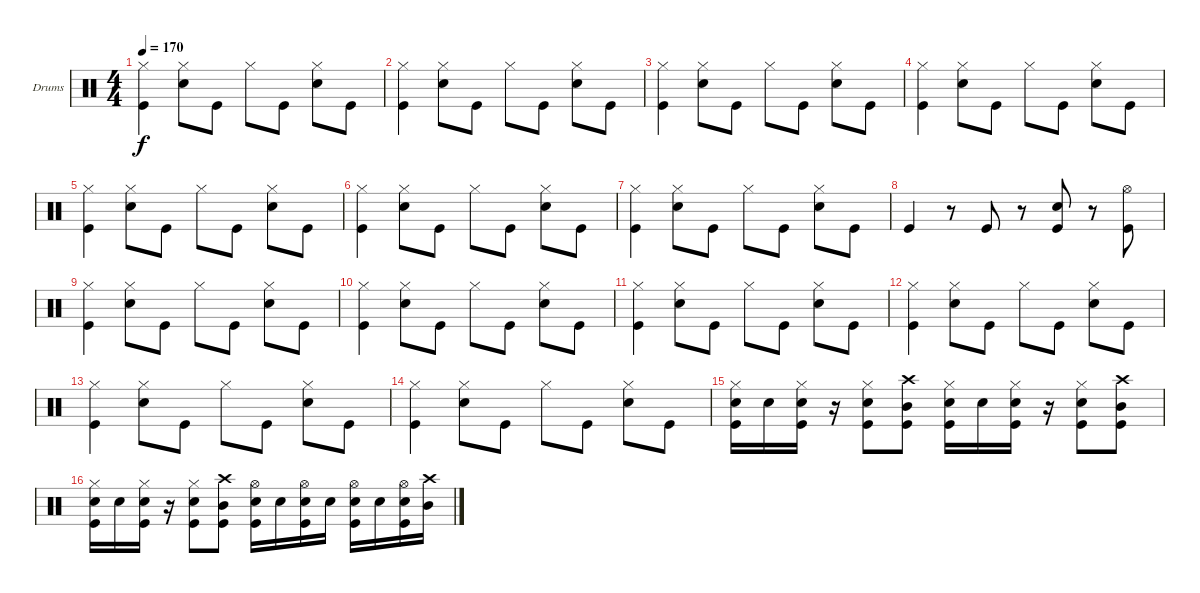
\bracketExtendMode groupsimilarinstruments
\firstSystemTrackNameOrientation horizontal
\otherSystemsTrackNameOrientation horizontal
\track ("Drumkit" "Drums") {instrument percussion}
\staff {score}
\articulation defaults
\ts (4 4)
\tempo 170
\clef neutral
\ks c
("Hi-Hat (closed)" "Kick (hit)").4{dy f} ("Hi-Hat (closed)" "Snare (hit) 2").8 "Kick (hit)".8 "Hi-Hat (closed)".8 "Kick (hit)".8 ("Hi-Hat (closed)" "Snare (hit) 2").8 "Kick (hit)".8 |
("Hi-Hat (closed)" "Kick (hit)").4 ("Hi-Hat (closed)" "Snare (hit) 2").8 "Kick (hit)".8 "Hi-Hat (closed)".8 "Kick (hit)".8 ("Hi-Hat (closed)" "Snare (hit) 2").8 "Kick (hit)".8 |
("Hi-Hat (closed)" "Kick (hit)").4 ("Hi-Hat (closed)" "Snare (hit) 2").8 "Kick (hit)".8 "Hi-Hat (closed)".8 "Kick (hit)".8 ("Hi-Hat (closed)" "Snare (hit) 2").8 "Kick (hit)".8 |
("Hi-Hat (closed)" "Kick (hit)").4 ("Hi-Hat (closed)" "Snare (hit) 2").8 "Kick (hit)".8 "Hi-Hat (closed)".8 "Kick (hit)".8 ("Hi-Hat (closed)" "Snare (hit) 2").8 "Kick (hit)".8 |
("Hi-Hat (closed)" "Kick (hit)").4 ("Hi-Hat (closed)" "Snare (hit) 2").8 "Kick (hit)".8 "Hi-Hat (closed)".8 "Kick (hit)".8 ("Hi-Hat (closed)" "Snare (hit) 2").8 "Kick (hit)".8 |
("Hi-Hat (closed)" "Kick (hit)").4 ("Hi-Hat (closed)" "Snare (hit) 2").8 "Kick (hit)".8 "Hi-Hat (closed)".8 "Kick (hit)".8 ("Hi-Hat (closed)" "Snare (hit) 2").8 "Kick (hit)".8 |
("Hi-Hat (closed)" "Kick (hit)").4 ("Hi-Hat (closed)" "Snare (hit) 2").8 "Kick (hit)".8 "Hi-Hat (closed)".8 "Kick (hit)".8 ("Hi-Hat (closed)" "Snare (hit) 2").8 "Kick (hit)".8 |
"Kick (hit)".4 r.8 "Kick (hit)".8 r.8 ("Snare (hit) 2" "Kick (hit)").8 r.8 ("Hi-Hat (open)" "Kick (hit)").8 |
("Hi-Hat (closed)" "Kick (hit)").4 ("Hi-Hat (closed)" "Snare (hit) 2").8 "Kick (hit)".8 "Hi-Hat (closed)".8 "Kick (hit)".8 ("Hi-Hat (closed)" "Snare (hit) 2").8 "Kick (hit)".8 |
("Hi-Hat (closed)" "Kick (hit)").4 ("Hi-Hat (closed)" "Snare (hit) 2").8 "Kick (hit)".8 "Hi-Hat (closed)".8 "Kick (hit)".8 ("Hi-Hat (closed)" "Snare (hit) 2").8 "Kick (hit)".8 |
("Hi-Hat (closed)" "Kick (hit)").4 ("Hi-Hat (closed)" "Snare (hit) 2").8 "Kick (hit)".8 "Hi-Hat (closed)".8 "Kick (hit)".8 ("Hi-Hat (closed)" "Snare (hit) 2").8 "Kick (hit)".8 |
("Hi-Hat (closed)" "Kick (hit)").4 ("Hi-Hat (closed)" "Snare (hit) 2").8 "Kick (hit)".8 "Hi-Hat (closed)".8 "Kick (hit)".8 ("Hi-Hat (closed)" "Snare (hit) 2").8 "Kick (hit)".8 |
("Hi-Hat (closed)" "Kick (hit)").4 ("Hi-Hat (closed)" "Snare (hit) 2").8 "Kick (hit)".8 "Hi-Hat (closed)".8 "Kick (hit)".8 ("Hi-Hat (closed)" "Snare (hit) 2").8 "Kick (hit)".8 |
("Hi-Hat (closed)" "Kick (hit)").4 ("Hi-Hat (closed)" "Snare (hit) 2").8 "Kick (hit)".8 "Hi-Hat (closed)".8 "Kick (hit)".8 ("Hi-Hat (closed)" "Snare (hit) 2").8 "Kick (hit)".8 |
("Hi-Hat (closed)" "Snare (hit) 2" "Kick (hit)").16 "Snare (hit) 2".16 ("Hi-Hat (closed)" "Snare (hit) 2" "Kick (hit)").16 r.16 ("Hi-Hat (closed)" "Snare (hit) 2" "Kick (hit)").8 ("Crash high (hit)" "Mid Tom (hit)" "Kick (hit)").8 ("Hi-Hat (closed)" "Snare (hit) 2" "Kick (hit)").16 "Snare (hit) 2".16 ("Hi-Hat (closed)" "Snare (hit) 2" "Kick (hit)").16 r.16 ("Hi-Hat (closed)" "Snare (hit) 2" "Kick (hit)").8 ("Crash high (hit)" "Mid Tom (hit)" "Kick (hit)").8 |
("Hi-Hat (closed)" "Snare (hit) 2" "Kick (hit)").16 "Snare (hit) 2".16 ("Hi-Hat (closed)" "Snare (hit) 2" "Kick (hit)").16 r.16 ("Hi-Hat (closed)" "Snare (hit) 2" "Kick (hit)").8 ("Crash high (hit)" "Mid Tom (hit)" "Kick (hit)").8 ("Hi-Hat (open)" "Snare (hit) 2" "Kick (hit)").16 "Snare (hit) 2".16 ("Hi-Hat (open)" "Snare (hit) 2" "Kick (hit)").16 "Snare (hit) 2".16 ("Hi-Hat (open)" "Snare (hit) 2" "Kick (hit)").16 "Snare (hit) 2".16 ("Hi-Hat (open)" "Snare (hit) 2" "Kick (hit)").16 ("Crash high (hit)" "Mid Tom (hit)").16
